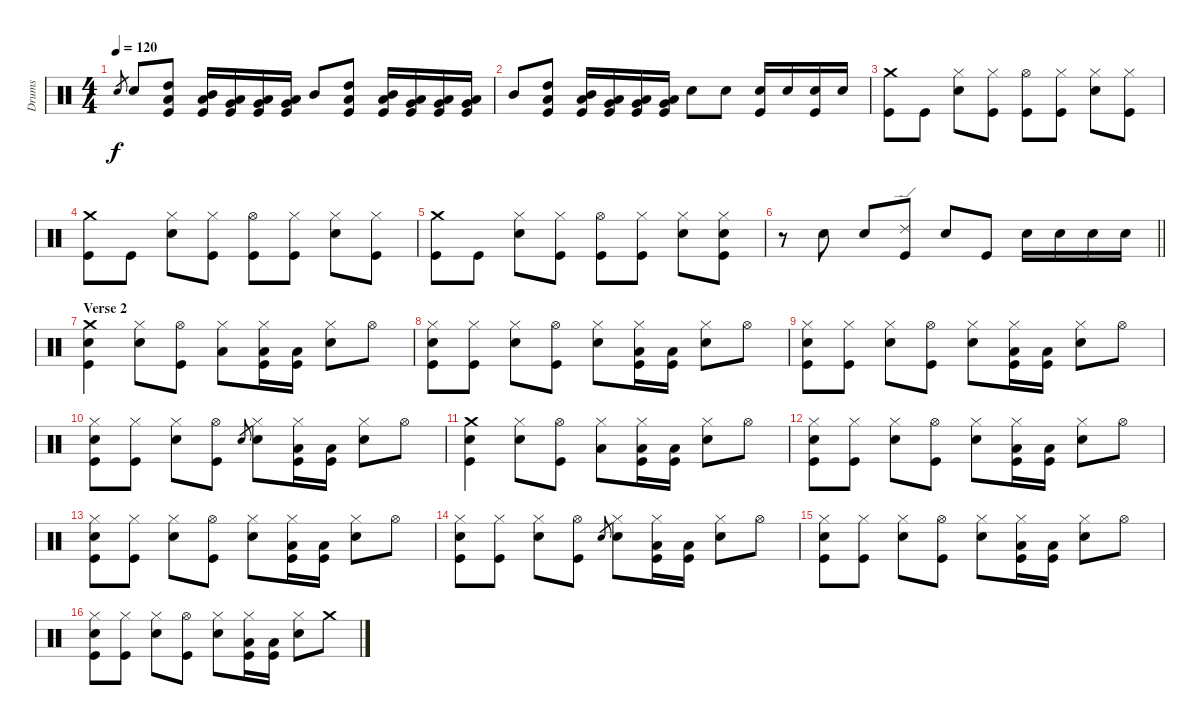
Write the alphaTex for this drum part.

\track ("Drums" "Drums") {instrument percussion}
\staff {score}
\articulation defaults
\ts (4 4)
\tempo 120
\clef neutral
\ks c "Snare (hit) 2".8{gr dy f} "Snare (hit) 2".8
("High Tom (hit)" "Low Tom (hit)" "Kick (hit)").8 ("Mid Tom (hit)" "Low Tom (hit)" "Kick (hit)").16 ("Very Low Tom (hit)" "Low Tom (hit)" "Kick (hit)").16 ("Very Low Tom (hit)" "Low Tom (hit)" "Kick (hit)").16 ("Very Low Tom (hit)" "Low Tom (hit)" "Kick (hit)").16 "Mid Tom (hit)".8 ("High Tom (hit)" "Low Tom (hit)" "Kick (hit)").8 ("Mid Tom (hit)" "Low Tom (hit)" "Kick (hit)").16 ("Very Low Tom (hit)" "Low Tom (hit)" "Kick (hit)").16 ("Very Low Tom (hit)" "Low Tom (hit)" "Kick (hit)").16 ("Very Low Tom (hit)" "Low Tom (hit)" "Kick (hit)").16 |
"Mid Tom (hit)".8 ("High Tom (hit)" "Low Tom (hit)" "Kick (hit)").8 ("Mid Tom (hit)" "Low Tom (hit)" "Kick (hit)").16 ("Very Low Tom (hit)" "Low Tom (hit)" "Kick (hit)").16 ("Very Low Tom (hit)" "Low Tom (hit)" "Kick (hit)").16 ("Very Low Tom (hit)" "Low Tom (hit)" "Kick (hit)").16 "Snare (hit) 2".8 "Snare (hit) 2".8 ("Snare (hit) 2" "Kick (hit)").16 "Snare (hit) 2".16 ("Snare (hit) 2" "Kick (hit)").16 "Snare (hit) 2".16 |
("Crash medium (hit)" "Kick (hit)").8 "Kick (hit)".8 ("Hi-Hat (closed)" "Snare (hit) 2").8 ("Hi-Hat (closed)" "Kick (hit)").8 ("Hi-Hat (open)" "Kick (hit)").8 ("Hi-Hat (closed)" "Kick (hit)").8 ("Hi-Hat (closed)" "Snare (hit) 2").8 ("Hi-Hat (closed)" "Kick (hit)").8 |
("Crash medium (hit)" "Kick (hit)").8 "Kick (hit)".8 ("Hi-Hat (closed)" "Snare (hit) 2").8 ("Hi-Hat (closed)" "Kick (hit)").8 ("Hi-Hat (open)" "Kick (hit)").8 ("Hi-Hat (closed)" "Kick (hit)").8 ("Hi-Hat (closed)" "Snare (hit) 2").8 ("Hi-Hat (closed)" "Kick (hit)").8 |
("Crash medium (hit)" "Kick (hit)").8 "Kick (hit)".8 ("Hi-Hat (closed)" "Snare (hit) 2").8 ("Hi-Hat (closed)" "Kick (hit)").8 ("Hi-Hat (open)" "Kick (hit)").8 ("Hi-Hat (closed)" "Kick (hit)").8 ("Hi-Hat (closed)" "Snare (hit) 2").8 ("Hi-Hat (closed)" "Snare (hit) 2" "Kick (hit)").8 |
\barLineRight lightlight
r.8 "Snare (hit) 2".8 "Snare (hit) 2".8 ("Ride (edge) 2" "Kick (hit)").8 "Snare (hit) 2".8 "Kick (hit)".8 "Snare (hit) 2".16 "Snare (hit) 2".16 "Snare (hit) 2".16 "Snare (hit) 2".16 |
\section ("" "Verse 2")
("Crash medium (hit)" "Snare (hit) 2" "Kick (hit)").4 ("Hi-Hat (closed)" "Snare (hit) 2").8 ("Hi-Hat (open)" "Kick (hit)").8 ("Hi-Hat (closed)" "Low Tom (hit)").8 ("Hi-Hat (closed)" "Low Tom (hit)" "Kick (hit)").16 ("Low Tom (hit)" "Kick (hit)").16 ("Hi-Hat (closed)" "Snare (hit) 2").8 "Hi-Hat (open)".8 |
("Hi-Hat (closed)" "Snare (hit) 2" "Kick (hit)").8 ("Hi-Hat (closed)" "Kick (hit)").8 ("Hi-Hat (closed)" "Snare (hit) 2").8 ("Hi-Hat (open)" "Kick (hit)").8 ("Hi-Hat (closed)" "Snare (hit) 2").8 ("Hi-Hat (closed)" "Low Tom (hit)" "Kick (hit)").16 ("Low Tom (hit)" "Kick (hit)").16 ("Hi-Hat (closed)" "Snare (hit) 2").8 "Hi-Hat (open)".8 |
("Hi-Hat (closed)" "Snare (hit) 2" "Kick (hit)").8 ("Hi-Hat (closed)" "Kick (hit)").8 ("Hi-Hat (closed)" "Snare (hit) 2").8 ("Hi-Hat (open)" "Kick (hit)").8 ("Hi-Hat (closed)" "Snare (hit) 2").8 ("Hi-Hat (closed)" "Low Tom (hit)" "Kick (hit)").16 ("Low Tom (hit)" "Kick (hit)").16 ("Hi-Hat (closed)" "Snare (hit) 2").8 "Hi-Hat (open)".8 |
("Hi-Hat (closed)" "Snare (hit) 2" "Kick (hit)").8 ("Hi-Hat (closed)" "Kick (hit)").8 ("Hi-Hat (closed)" "Snare (hit) 2").8 ("Hi-Hat (open)" "Kick (hit)").8 "Snare (hit) 2".8{gr} ("Hi-Hat (closed)" "Snare (hit) 2").8 ("Hi-Hat (closed)" "Low Tom (hit)" "Kick (hit)").16 ("Low Tom (hit)" "Kick (hit)").16 ("Hi-Hat (closed)" "Snare (hit) 2").8 "Hi-Hat (open)".8 |
("Crash medium (hit)" "Snare (hit) 2" "Kick (hit)").4 ("Hi-Hat (closed)" "Snare (hit) 2").8 ("Hi-Hat (open)" "Kick (hit)").8 ("Hi-Hat (closed)" "Low Tom (hit)").8 ("Hi-Hat (closed)" "Low Tom (hit)" "Kick (hit)").16 ("Low Tom (hit)" "Kick (hit)").16 ("Hi-Hat (closed)" "Snare (hit) 2").8 "Hi-Hat (open)".8 |
("Hi-Hat (closed)" "Snare (hit) 2" "Kick (hit)").8 ("Hi-Hat (closed)" "Kick (hit)").8 ("Hi-Hat (closed)" "Snare (hit) 2").8 ("Hi-Hat (open)" "Kick (hit)").8 ("Hi-Hat (closed)" "Snare (hit) 2").8 ("Hi-Hat (closed)" "Low Tom (hit)" "Kick (hit)").16 ("Low Tom (hit)" "Kick (hit)").16 ("Hi-Hat (closed)" "Snare (hit) 2").8 "Hi-Hat (open)".8 |
("Hi-Hat (closed)" "Snare (hit) 2" "Kick (hit)").8 ("Hi-Hat (closed)" "Kick (hit)").8 ("Hi-Hat (closed)" "Snare (hit) 2").8 ("Hi-Hat (open)" "Kick (hit)").8 ("Hi-Hat (closed)" "Snare (hit) 2").8 ("Hi-Hat (closed)" "Low Tom (hit)" "Kick (hit)").16 ("Low Tom (hit)" "Kick (hit)").16 ("Hi-Hat (closed)" "Snare (hit) 2").8 "Hi-Hat (open)".8 |
("Hi-Hat (closed)" "Snare (hit) 2" "Kick (hit)").8 ("Hi-Hat (closed)" "Kick (hit)").8 ("Hi-Hat (closed)" "Snare (hit) 2").8 ("Hi-Hat (open)" "Kick (hit)").8 "Snare (hit) 2".8{gr} ("Hi-Hat (closed)" "Snare (hit) 2").8 ("Hi-Hat (closed)" "Low Tom (hit)" "Kick (hit)").16 ("Low Tom (hit)" "Kick (hit)").16 ("Hi-Hat (closed)" "Snare (hit) 2").8 "Hi-Hat (open)".8 |
("Hi-Hat (closed)" "Snare (hit) 2" "Kick (hit)").8 ("Hi-Hat (closed)" "Kick (hit)").8 ("Hi-Hat (closed)" "Snare (hit) 2").8 ("Hi-Hat (open)" "Kick (hit)").8 ("Hi-Hat (closed)" "Snare (hit) 2").8 ("Hi-Hat (closed)" "Low Tom (hit)" "Kick (hit)").16 ("Low Tom (hit)" "Kick (hit)").16 ("Hi-Hat (closed)" "Snare (hit) 2").8 "Hi-Hat (open)".8 |
("Hi-Hat (closed)" "Snare (hit) 2" "Kick (hit)").8 ("Hi-Hat (closed)" "Kick (hit)").8 ("Hi-Hat (closed)" "Snare (hit) 2").8 ("Hi-Hat (open)" "Kick (hit)").8 ("Hi-Hat (closed)" "Snare (hit) 2").8 ("Hi-Hat (closed)" "Low Tom (hit)" "Kick (hit)").16 ("Low Tom (hit)" "Kick (hit)").16 ("Hi-Hat (closed)" "Snare (hit) 2").8 "Crash medium (hit)".8
